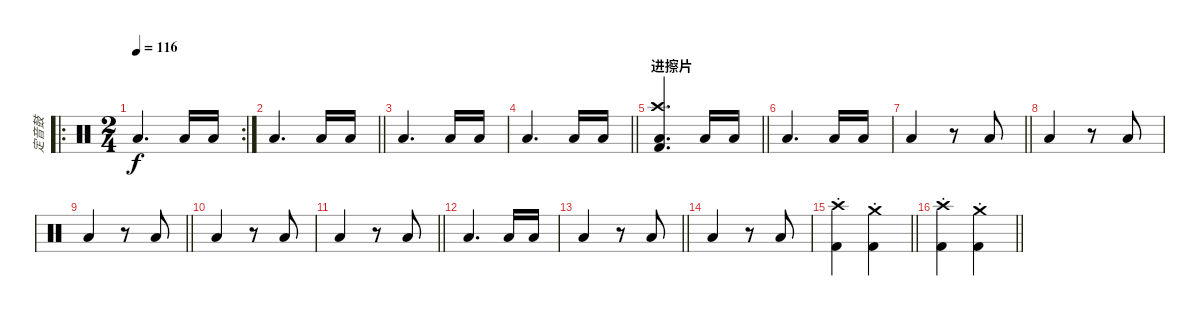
\track ("定音鼓" "定音鼓") {instrument percussion}
\staff {score}
\articulation defaults
\ro
\rc 2
\ts (2 4)
\tempo 116
\clef neutral
\ks c "Low Floor Tom (hit)".4{d dy f} "Low Floor Tom (hit)".16 "Low Floor Tom (hit)".16
|
\barLineRight lightlight "Low Floor Tom (hit)".4{d} "Low Floor Tom (hit)".16 "Low Floor Tom (hit)".16
|
"Low Floor Tom (hit)".4{d} "Low Floor Tom (hit)".16 "Low Floor Tom (hit)".16 |
\barLineRight lightlight "Low Floor Tom (hit)".4{d} "Low Floor Tom (hit)".16 "Low Floor Tom (hit)".16
|
\section ("" "进擦片")
\barLineRight lightlight
("Crash high (hit)" "Low Floor Tom (hit)" "Kick (hit) 2").4{d} "Low Floor Tom (hit)".16 "Low Floor Tom (hit)".16 |
\section ("" "")
"Low Floor Tom (hit)".4{d} "Low Floor Tom (hit)".16 "Low Floor Tom (hit)".16 |
\barLineRight lightlight "Low Floor Tom (hit)".4
r.8 "Low Floor Tom (hit)".8 |
"Low Floor Tom (hit)".4 r.8 "Low Floor Tom (hit)".8 |
\barLineRight lightlight "Low Floor Tom (hit)".4
r.8 "Low Floor Tom (hit)".8 |
"Low Floor Tom (hit)".4 r.8 "Low Floor Tom (hit)".8 |
\barLineRight lightlight "Low Floor Tom (hit)".4
r.8 "Low Floor Tom (hit)".8 |
"Low Floor Tom (hit)".4{d} "Low Floor Tom (hit)".16 "Low Floor Tom (hit)".16 |
\barLineRight lightlight "Low Floor Tom (hit)".4
r.8 "Low Floor Tom (hit)".8 |
"Low Floor Tom (hit)".4 r.8 "Low Floor Tom (hit)".8 |
\barLineRight lightlight
("Crash high (hit)"{st} "Kick (hit) 2"{st}).4 ("Crash medium (hit)"{st} "Kick (hit) 2"{st}).4 |
\barLineRight lightlight
("Crash high (hit)"{st} "Kick (hit) 2"{st}).4 ("Crash medium (hit)"{st} "Kick (hit) 2"{st}).4
